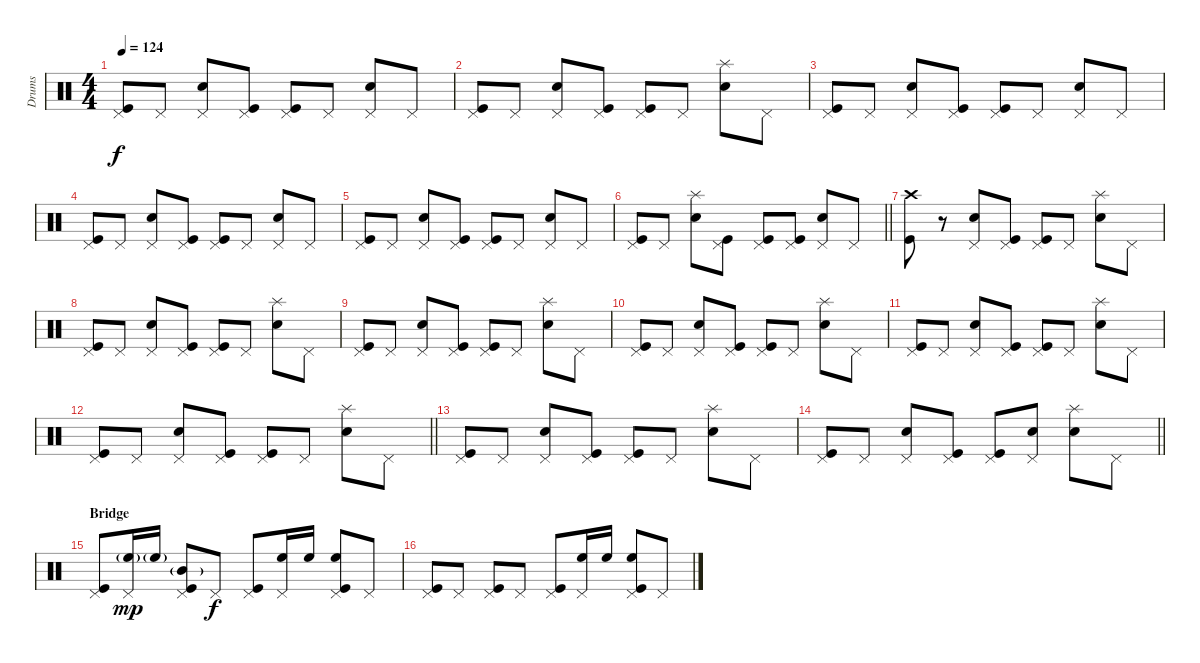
\track ("Drums" "Drums") {instrument percussion}
\staff {score}
\articulation defaults
\ts (4 4)
\tempo 124
\clef neutral
\ks c
("Pedal Hi-Hat (hit)" "Kick (hit)").8{dy f} "Pedal Hi-Hat (hit)".8 ("Pedal Hi-Hat (hit)" "Electric Snare (hit)").8 ("Pedal Hi-Hat (hit)" "Kick (hit)").8 ("Pedal Hi-Hat (hit)" "Kick (hit)").8 "Pedal Hi-Hat (hit)".8 ("Pedal Hi-Hat (hit)" "Electric Snare (hit)").8 "Pedal Hi-Hat (hit)".8 |
("Pedal Hi-Hat (hit)" "Kick (hit)").8 "Pedal Hi-Hat (hit)".8 ("Pedal Hi-Hat (hit)" "Electric Snare (hit)").8 ("Pedal Hi-Hat (hit)" "Kick (hit)").8 ("Pedal Hi-Hat (hit)" "Kick (hit)").8 "Pedal Hi-Hat (hit)".8 ("Splash (hit)" "Electric Snare (hit)").8 "Pedal Hi-Hat (hit)".8 |
("Pedal Hi-Hat (hit)" "Kick (hit)").8 "Pedal Hi-Hat (hit)".8 ("Pedal Hi-Hat (hit)" "Electric Snare (hit)").8 ("Pedal Hi-Hat (hit)" "Kick (hit)").8 ("Pedal Hi-Hat (hit)" "Kick (hit)").8 "Pedal Hi-Hat (hit)".8 ("Pedal Hi-Hat (hit)" "Electric Snare (hit)").8 "Pedal Hi-Hat (hit)".8 |
("Pedal Hi-Hat (hit)" "Kick (hit)").8 "Pedal Hi-Hat (hit)".8 ("Pedal Hi-Hat (hit)" "Electric Snare (hit)").8 ("Pedal Hi-Hat (hit)" "Kick (hit)").8 ("Pedal Hi-Hat (hit)" "Kick (hit)").8 "Pedal Hi-Hat (hit)".8 ("Pedal Hi-Hat (hit)" "Electric Snare (hit)").8 "Pedal Hi-Hat (hit)".8 |
("Pedal Hi-Hat (hit)" "Kick (hit)").8 "Pedal Hi-Hat (hit)".8 ("Pedal Hi-Hat (hit)" "Electric Snare (hit)").8 ("Pedal Hi-Hat (hit)" "Kick (hit)").8 ("Pedal Hi-Hat (hit)" "Kick (hit)").8 "Pedal Hi-Hat (hit)".8 ("Pedal Hi-Hat (hit)" "Electric Snare (hit)").8 "Pedal Hi-Hat (hit)".8 |
\barLineRight lightlight
("Pedal Hi-Hat (hit)" "Kick (hit)").8 "Pedal Hi-Hat (hit)".8 ("Splash (hit)" "Electric Snare (hit)").8 ("Pedal Hi-Hat (hit)" "Kick (hit)").8 ("Pedal Hi-Hat (hit)" "Kick (hit)").8 ("Pedal Hi-Hat (hit)" "Kick (hit)").8 ("Pedal Hi-Hat (hit)" "Electric Snare (hit)").8 "Pedal Hi-Hat (hit)".8 |
("Crash high (hit)" "Kick (hit)").8 r.8 ("Pedal Hi-Hat (hit)" "Electric Snare (hit)").8 ("Pedal Hi-Hat (hit)" "Kick (hit)").8 ("Pedal Hi-Hat (hit)" "Kick (hit)").8 "Pedal Hi-Hat (hit)".8 ("Splash (hit)" "Electric Snare (hit)").8 "Pedal Hi-Hat (hit)".8 |
("Pedal Hi-Hat (hit)" "Kick (hit)").8 "Pedal Hi-Hat (hit)".8 ("Pedal Hi-Hat (hit)" "Electric Snare (hit)").8 ("Pedal Hi-Hat (hit)" "Kick (hit)").8 ("Pedal Hi-Hat (hit)" "Kick (hit)").8 "Pedal Hi-Hat (hit)".8 ("Splash (hit)" "Electric Snare (hit)").8 "Pedal Hi-Hat (hit)".8 |
("Pedal Hi-Hat (hit)" "Kick (hit)").8 "Pedal Hi-Hat (hit)".8 ("Pedal Hi-Hat (hit)" "Electric Snare (hit)").8 ("Pedal Hi-Hat (hit)" "Kick (hit)").8 ("Pedal Hi-Hat (hit)" "Kick (hit)").8 "Pedal Hi-Hat (hit)".8 ("Splash (hit)" "Electric Snare (hit)").8 "Pedal Hi-Hat (hit)".8 |
("Pedal Hi-Hat (hit)" "Kick (hit)").8 "Pedal Hi-Hat (hit)".8 ("Pedal Hi-Hat (hit)" "Electric Snare (hit)").8 ("Pedal Hi-Hat (hit)" "Kick (hit)").8 ("Pedal Hi-Hat (hit)" "Kick (hit)").8 "Pedal Hi-Hat (hit)".8 ("Splash (hit)" "Electric Snare (hit)").8 "Pedal Hi-Hat (hit)".8 |
("Pedal Hi-Hat (hit)" "Kick (hit)").8 "Pedal Hi-Hat (hit)".8 ("Pedal Hi-Hat (hit)" "Electric Snare (hit)").8 ("Pedal Hi-Hat (hit)" "Kick (hit)").8 ("Pedal Hi-Hat (hit)" "Kick (hit)").8 "Pedal Hi-Hat (hit)".8 ("Splash (hit)" "Electric Snare (hit)").8 "Pedal Hi-Hat (hit)".8 |
\barLineRight lightlight
("Pedal Hi-Hat (hit)" "Kick (hit)").8 "Pedal Hi-Hat (hit)".8 ("Pedal Hi-Hat (hit)" "Electric Snare (hit)").8 ("Pedal Hi-Hat (hit)" "Kick (hit)").8 ("Pedal Hi-Hat (hit)" "Kick (hit)").8 "Pedal Hi-Hat (hit)".8 ("Splash (hit)" "Electric Snare (hit)").8 "Pedal Hi-Hat (hit)".8 |
("Pedal Hi-Hat (hit)" "Kick (hit)").8 "Pedal Hi-Hat (hit)".8 ("Pedal Hi-Hat (hit)" "Electric Snare (hit)").8 ("Pedal Hi-Hat (hit)" "Kick (hit)").8 ("Pedal Hi-Hat (hit)" "Kick (hit)").8 "Pedal Hi-Hat (hit)".8 ("Splash (hit)" "Electric Snare (hit)").8 "Pedal Hi-Hat (hit)".8 |
\barLineRight lightlight
("Pedal Hi-Hat (hit)" "Kick (hit)").8 "Pedal Hi-Hat (hit)".8 ("Pedal Hi-Hat (hit)" "Electric Snare (hit)").8 ("Pedal Hi-Hat (hit)" "Kick (hit)").8 ("Pedal Hi-Hat (hit)" "Kick (hit)").8 ("Pedal Hi-Hat (hit)" "Electric Snare (hit)").8 ("Splash (hit)" "Electric Snare (hit)").8 "Pedal Hi-Hat (hit)".8 |
\section ("" "Bridge")
("Pedal Hi-Hat (hit)" "Kick (hit)").8 ("Pedal Hi-Hat (hit)" "High Floor Tom (hit)"{g}).16{dy mp} "High Floor Tom (hit)"{g}.16 ("Pedal Hi-Hat (hit)" "Mid Tom (hit)"{g} "Kick (hit)").8 "Pedal Hi-Hat (hit)".8{dy f} ("Pedal Hi-Hat (hit)" "Kick (hit)").8 ("Pedal Hi-Hat (hit)" "High Floor Tom (hit)").16 "High Floor Tom (hit)".16 ("Pedal Hi-Hat (hit)" "High Floor Tom (hit)" "Kick (hit)").8 "Pedal Hi-Hat (hit)".8 |
("Pedal Hi-Hat (hit)" "Kick (hit)").8 "Pedal Hi-Hat (hit)".8 ("Pedal Hi-Hat (hit)" "Kick (hit)").8 "Pedal Hi-Hat (hit)".8 ("Pedal Hi-Hat (hit)" "Kick (hit)").8 ("Pedal Hi-Hat (hit)" "High Floor Tom (hit)").16 "High Floor Tom (hit)".16 ("Pedal Hi-Hat (hit)" "High Floor Tom (hit)" "Kick (hit)").8 "Pedal Hi-Hat (hit)".8
